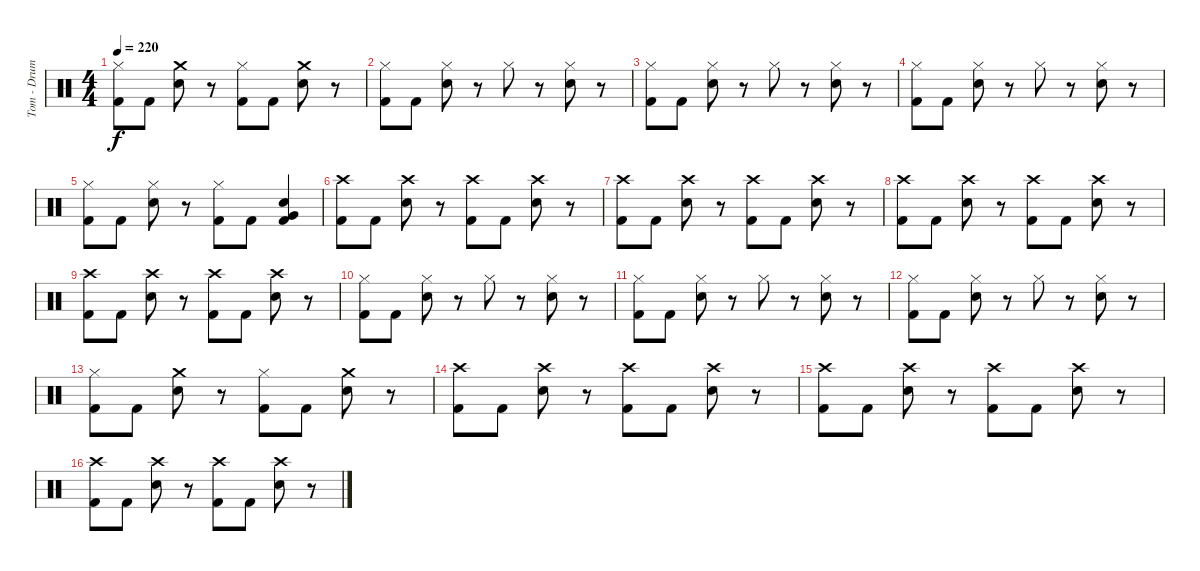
\track ("Tom - Drums" "Tom - Drum") {instrument percussion}
\staff {score}
\articulation defaults
\ts (4 4)
\tempo 220
\clef neutral
\ks c
("Hi-Hat (closed)" "Kick (hit) 2").8{dy f} "Kick (hit) 2".8 ("Crash medium (hit)" "Electric Snare (hit)").8 r.8 ("Hi-Hat (closed)" "Kick (hit) 2").8 "Kick (hit) 2".8 ("Crash medium (hit)" "Electric Snare (hit)").8 r.8 |
("Hi-Hat (closed)" "Kick (hit) 2").8 "Kick (hit) 2".8 ("Hi-Hat (closed)" "Electric Snare (hit)").8 r.8 "Hi-Hat (closed)".8 r.8 ("Hi-Hat (closed)" "Electric Snare (hit)").8 r.8 |
("Hi-Hat (closed)" "Kick (hit) 2").8 "Kick (hit) 2".8 ("Hi-Hat (closed)" "Electric Snare (hit)").8 r.8 "Hi-Hat (closed)".8 r.8 ("Hi-Hat (closed)" "Electric Snare (hit)").8 r.8 |
("Hi-Hat (closed)" "Kick (hit) 2").8 "Kick (hit) 2".8 ("Hi-Hat (closed)" "Electric Snare (hit)").8 r.8 "Hi-Hat (closed)".8 r.8 ("Hi-Hat (closed)" "Electric Snare (hit)").8 r.8 |
("Hi-Hat (closed)" "Kick (hit) 2").8 "Kick (hit) 2".8 ("Hi-Hat (closed)" "Electric Snare (hit)").8 r.8 ("Hi-Hat (closed)" "Kick (hit) 2").8 "Kick (hit) 2".8 ("Very Low Tom (hit)" "Kick (hit) 2" "Electric Snare (hit)").4 |
("Crash high (hit)" "Kick (hit) 2").8 "Kick (hit) 2".8 ("Crash high (hit)" "Electric Snare (hit)").8 r.8 ("Crash high (hit)" "Kick (hit) 2").8 "Kick (hit) 2".8 ("Crash high (hit)" "Electric Snare (hit)").8 r.8 |
("Crash high (hit)" "Kick (hit) 2").8 "Kick (hit) 2".8 ("Crash high (hit)" "Electric Snare (hit)").8 r.8 ("Crash high (hit)" "Kick (hit) 2").8 "Kick (hit) 2".8 ("Crash high (hit)" "Electric Snare (hit)").8 r.8 |
("Crash high (hit)" "Kick (hit) 2").8 "Kick (hit) 2".8 ("Crash high (hit)" "Electric Snare (hit)").8 r.8 ("Crash high (hit)" "Kick (hit) 2").8 "Kick (hit) 2".8 ("Crash high (hit)" "Electric Snare (hit)").8 r.8 |
("Crash high (hit)" "Kick (hit) 2").8 "Kick (hit) 2".8 ("Crash high (hit)" "Electric Snare (hit)").8 r.8 ("Crash high (hit)" "Kick (hit) 2").8 "Kick (hit) 2".8 ("Crash high (hit)" "Electric Snare (hit)").8 r.8 |
("Hi-Hat (closed)" "Kick (hit) 2").8 "Kick (hit) 2".8 ("Hi-Hat (closed)" "Electric Snare (hit)").8 r.8 "Hi-Hat (closed)".8 r.8 ("Hi-Hat (closed)" "Electric Snare (hit)").8 r.8 |
("Hi-Hat (closed)" "Kick (hit) 2").8 "Kick (hit) 2".8 ("Hi-Hat (closed)" "Electric Snare (hit)").8 r.8 "Hi-Hat (closed)".8 r.8 ("Hi-Hat (closed)" "Electric Snare (hit)").8 r.8 |
("Hi-Hat (closed)" "Kick (hit) 2").8 "Kick (hit) 2".8 ("Hi-Hat (closed)" "Electric Snare (hit)").8 r.8 "Hi-Hat (closed)".8 r.8 ("Hi-Hat (closed)" "Electric Snare (hit)").8 r.8 |
("Hi-Hat (closed)" "Kick (hit) 2").8 "Kick (hit) 2".8 ("Crash medium (hit)" "Electric Snare (hit)").8 r.8 ("Hi-Hat (closed)" "Kick (hit) 2").8 "Kick (hit) 2".8 ("Crash medium (hit)" "Electric Snare (hit)").8 r.8 |
("Crash high (hit)" "Kick (hit) 2").8 "Kick (hit) 2".8 ("Crash high (hit)" "Electric Snare (hit)").8 r.8 ("Crash high (hit)" "Kick (hit) 2").8 "Kick (hit) 2".8 ("Crash high (hit)" "Electric Snare (hit)").8 r.8 |
("Crash high (hit)" "Kick (hit) 2").8 "Kick (hit) 2".8 ("Crash high (hit)" "Electric Snare (hit)").8 r.8 ("Crash high (hit)" "Kick (hit) 2").8 "Kick (hit) 2".8 ("Crash high (hit)" "Electric Snare (hit)").8 r.8 |
("Crash high (hit)" "Kick (hit) 2").8 "Kick (hit) 2".8 ("Crash high (hit)" "Electric Snare (hit)").8 r.8 ("Crash high (hit)" "Kick (hit) 2").8 "Kick (hit) 2".8 ("Crash high (hit)" "Electric Snare (hit)").8 r.8
